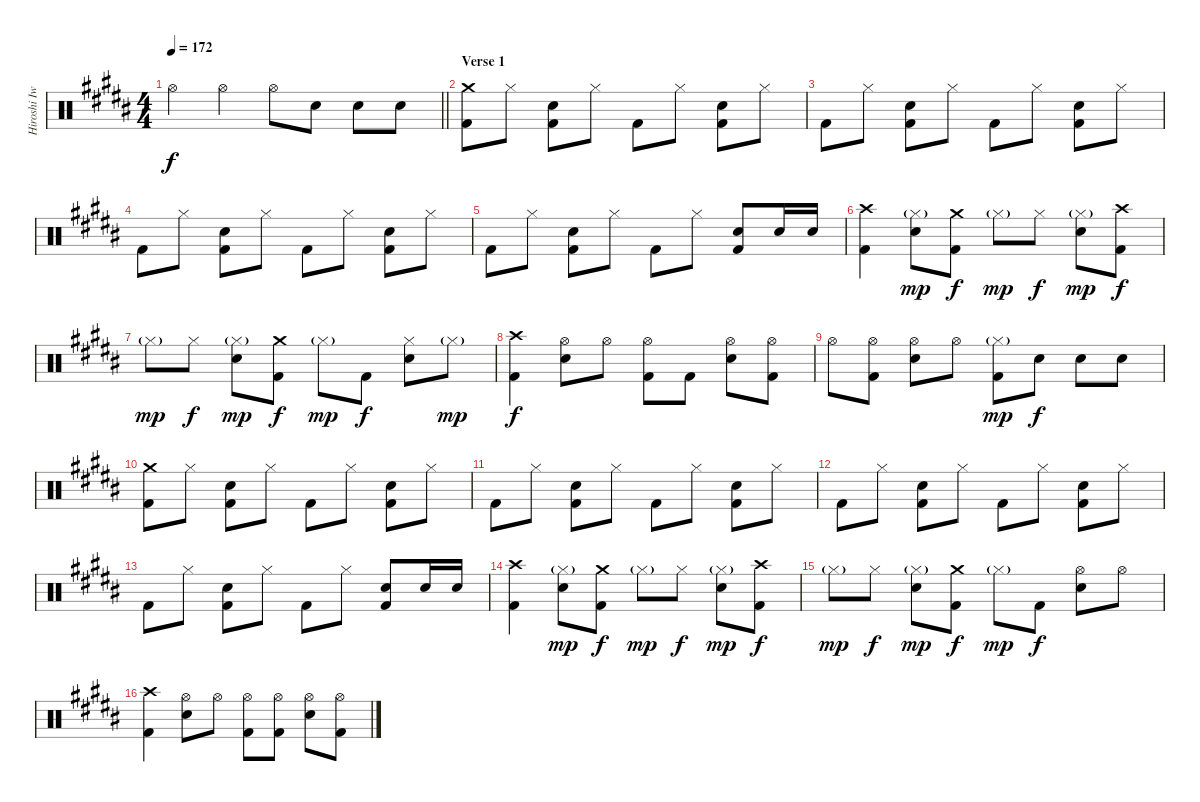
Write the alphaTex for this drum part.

\track ("Hiroshi Iwasaki - Drums" "Hiroshi Iw") {instrument percussion}
\staff {score}
\articulation defaults
\ts (4 4)
\tempo 172
\clef neutral
\barLineRight lightlight
\ks b "Hi-Hat (open)".4{dy f} "Hi-Hat (open)".4 "Hi-Hat (open)".8 "Snare (hit) 2".8 "Snare (hit) 2".8 "Snare (hit) 2".8
|
\section ("" "Verse 1")
("Crash medium (hit)" "Kick (hit) 2").8 "Hi-Hat (closed)".8 ("Snare (hit) 2" "Kick (hit) 2").8 "Hi-Hat (closed)".8 "Kick (hit) 2".8 "Hi-Hat (closed)".8 ("Snare (hit) 2" "Kick (hit) 2").8 "Hi-Hat (closed)".8 |
"Kick (hit) 2".8 "Hi-Hat (closed)".8 ("Snare (hit) 2" "Kick (hit) 2").8 "Hi-Hat (closed)".8 "Kick (hit) 2".8 "Hi-Hat (closed)".8 ("Snare (hit) 2" "Kick (hit) 2").8 "Hi-Hat (closed)".8 |
"Kick (hit) 2".8 "Hi-Hat (closed)".8 ("Snare (hit) 2" "Kick (hit) 2").8 "Hi-Hat (closed)".8 "Kick (hit) 2".8 "Hi-Hat (closed)".8 ("Snare (hit) 2" "Kick (hit) 2").8 "Hi-Hat (closed)".8 |
"Kick (hit) 2".8 "Hi-Hat (closed)".8 ("Snare (hit) 2" "Kick (hit) 2").8 "Hi-Hat (closed)".8 "Kick (hit) 2".8 "Hi-Hat (closed)".8 ("Snare (hit) 2" "Kick (hit) 2").8 "Snare (hit) 2".16 "Snare (hit) 2".16 |
("Crash high (hit)" "Kick (hit) 2").4 ("Snare (hit) 2" "Hi-Hat (closed)"{g}).8{dy mp} ("Crash medium (hit)" "Kick (hit) 2").8{dy f} "Hi-Hat (closed)"{g}.8{dy mp} "Hi-Hat (closed)".8{dy f} ("Snare (hit) 2" "Hi-Hat (closed)"{g}).8{dy mp} ("Crash high (hit)" "Kick (hit) 2").8{dy f} |
"Hi-Hat (closed)"{g}.8{dy mp} "Hi-Hat (closed)".8{dy f} ("Snare (hit) 2" "Hi-Hat (closed)"{g}).8{dy mp} ("Crash medium (hit)" "Kick (hit) 2").8{dy f} "Hi-Hat (closed)"{g}.8{dy mp} "Kick (hit) 2".8{dy f} ("Snare (hit) 2" "Hi-Hat (closed)").8 "Hi-Hat (closed)"{g}.8{dy mp} |
("Crash high (hit)" "Kick (hit) 2").4{dy f} ("Snare (hit) 2" "Hi-Hat (open)").8 "Hi-Hat (open)".8 ("Hi-Hat (open)" "Kick (hit) 2").8 "Kick (hit) 2".8 ("Snare (hit) 2" "Hi-Hat (open)").8 ("Hi-Hat (open)" "Kick (hit) 2").8 |
"Hi-Hat (open)".8 ("Hi-Hat (open)" "Kick (hit) 2").8 ("Snare (hit) 2" "Hi-Hat (open)").8 "Hi-Hat (open)".8 ("Hi-Hat (closed)"{g} "Kick (hit) 2").8{dy mp} "Snare (hit) 2".8{dy f} "Snare (hit) 2".8 "Snare (hit) 2".8 |
("Crash medium (hit)" "Kick (hit) 2").8 "Hi-Hat (closed)".8 ("Snare (hit) 2" "Kick (hit) 2").8 "Hi-Hat (closed)".8 "Kick (hit) 2".8 "Hi-Hat (closed)".8 ("Snare (hit) 2" "Kick (hit) 2").8 "Hi-Hat (closed)".8 |
"Kick (hit) 2".8 "Hi-Hat (closed)".8 ("Snare (hit) 2" "Kick (hit) 2").8 "Hi-Hat (closed)".8 "Kick (hit) 2".8 "Hi-Hat (closed)".8 ("Snare (hit) 2" "Kick (hit) 2").8 "Hi-Hat (closed)".8 |
"Kick (hit) 2".8 "Hi-Hat (closed)".8 ("Snare (hit) 2" "Kick (hit) 2").8 "Hi-Hat (closed)".8 "Kick (hit) 2".8 "Hi-Hat (closed)".8 ("Snare (hit) 2" "Kick (hit) 2").8 "Hi-Hat (closed)".8 |
"Kick (hit) 2".8 "Hi-Hat (closed)".8 ("Snare (hit) 2" "Kick (hit) 2").8 "Hi-Hat (closed)".8 "Kick (hit) 2".8 "Hi-Hat (closed)".8 ("Snare (hit) 2" "Kick (hit) 2").8 "Snare (hit) 2".16 "Snare (hit) 2".16 |
("Crash high (hit)" "Kick (hit) 2").4 ("Snare (hit) 2" "Hi-Hat (closed)"{g}).8{dy mp} ("Crash medium (hit)" "Kick (hit) 2").8{dy f} "Hi-Hat (closed)"{g}.8{dy mp} "Hi-Hat (closed)".8{dy f} ("Snare (hit) 2" "Hi-Hat (closed)"{g}).8{dy mp} ("Crash high (hit)" "Kick (hit) 2").8{dy f} |
"Hi-Hat (closed)"{g}.8{dy mp} "Hi-Hat (closed)".8{dy f} ("Snare (hit) 2" "Hi-Hat (closed)"{g}).8{dy mp} ("Crash medium (hit)" "Kick (hit) 2").8{dy f} "Hi-Hat (closed)"{g}.8{dy mp} "Kick (hit) 2".8{dy f} ("Snare (hit) 2" "Hi-Hat (open)").8 "Hi-Hat (open)".8 |
("Crash high (hit)" "Kick (hit) 2").4 ("Snare (hit) 2" "Hi-Hat (open)").8 "Hi-Hat (open)".8 ("Hi-Hat (open)" "Kick (hit) 2").8 ("Hi-Hat (open)" "Kick (hit) 2").8 ("Snare (hit) 2" "Hi-Hat (open)").8 ("Hi-Hat (open)" "Kick (hit) 2").8
